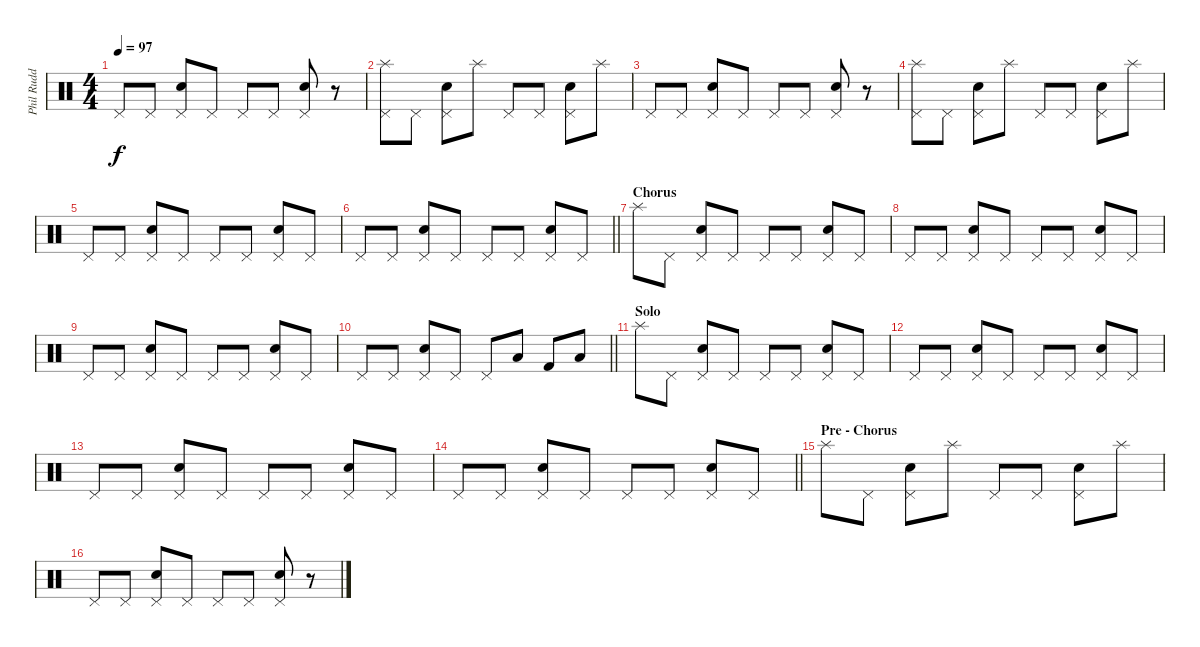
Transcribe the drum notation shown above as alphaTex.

\track ("Phil Rudd - Drums" "Phil Rudd ") {instrument percussion}
\staff {score}
\articulation defaults
\ts (4 4)
\tempo 97
\clef neutral
\ks c "Pedal Hi-Hat (hit)".8{dy f} "Pedal Hi-Hat (hit)".8
("Pedal Hi-Hat (hit)" "Snare (hit) 2").8 "Pedal Hi-Hat (hit)".8 "Pedal Hi-Hat (hit)".8 "Pedal Hi-Hat (hit)".8 ("Pedal Hi-Hat (hit)" "Snare (hit) 2").8 r.8 |
("Pedal Hi-Hat (hit)" "Splash (hit)").8 "Pedal Hi-Hat (hit)".8 ("Pedal Hi-Hat (hit)" "Snare (hit) 2").8 "Splash (hit)".8 "Pedal Hi-Hat (hit)".8 "Pedal Hi-Hat (hit)".8 ("Pedal Hi-Hat (hit)" "Snare (hit) 2").8 "Splash (hit)".8 |
"Pedal Hi-Hat (hit)".8 "Pedal Hi-Hat (hit)".8 ("Pedal Hi-Hat (hit)" "Snare (hit) 2").8 "Pedal Hi-Hat (hit)".8 "Pedal Hi-Hat (hit)".8 "Pedal Hi-Hat (hit)".8 ("Pedal Hi-Hat (hit)" "Snare (hit) 2").8 r.8 |
("Pedal Hi-Hat (hit)" "Splash (hit)").8 "Pedal Hi-Hat (hit)".8 ("Pedal Hi-Hat (hit)" "Snare (hit) 2").8 "Splash (hit)".8 "Pedal Hi-Hat (hit)".8 "Pedal Hi-Hat (hit)".8 ("Pedal Hi-Hat (hit)" "Snare (hit) 2").8 "Splash (hit)".8 |
"Pedal Hi-Hat (hit)".8 "Pedal Hi-Hat (hit)".8 ("Pedal Hi-Hat (hit)" "Snare (hit) 2").8 "Pedal Hi-Hat (hit)".8 "Pedal Hi-Hat (hit)".8 "Pedal Hi-Hat (hit)".8 ("Pedal Hi-Hat (hit)" "Snare (hit) 2").8 "Pedal Hi-Hat (hit)".8 |
\barLineRight lightlight "Pedal Hi-Hat (hit)".8 "Pedal Hi-Hat (hit)".8
("Pedal Hi-Hat (hit)" "Snare (hit) 2").8 "Pedal Hi-Hat (hit)".8 "Pedal Hi-Hat (hit)".8 "Pedal Hi-Hat (hit)".8 ("Pedal Hi-Hat (hit)" "Snare (hit) 2").8 "Pedal Hi-Hat (hit)".8 |
\section ("" "Chorus")
"Splash (hit)".8 "Pedal Hi-Hat (hit)".8 ("Pedal Hi-Hat (hit)" "Snare (hit) 2").8 "Pedal Hi-Hat (hit)".8 "Pedal Hi-Hat (hit)".8 "Pedal Hi-Hat (hit)".8 ("Pedal Hi-Hat (hit)" "Snare (hit) 2").8 "Pedal Hi-Hat (hit)".8 |
"Pedal Hi-Hat (hit)".8 "Pedal Hi-Hat (hit)".8 ("Pedal Hi-Hat (hit)" "Snare (hit) 2").8 "Pedal Hi-Hat (hit)".8 "Pedal Hi-Hat (hit)".8 "Pedal Hi-Hat (hit)".8 ("Pedal Hi-Hat (hit)" "Snare (hit) 2").8 "Pedal Hi-Hat (hit)".8 |
"Pedal Hi-Hat (hit)".8 "Pedal Hi-Hat (hit)".8 ("Pedal Hi-Hat (hit)" "Snare (hit) 2").8 "Pedal Hi-Hat (hit)".8 "Pedal Hi-Hat (hit)".8 "Pedal Hi-Hat (hit)".8 ("Pedal Hi-Hat (hit)" "Snare (hit) 2").8 "Pedal Hi-Hat (hit)".8 |
\barLineRight lightlight "Pedal Hi-Hat (hit)".8 "Pedal Hi-Hat (hit)".8
("Pedal Hi-Hat (hit)" "Snare (hit) 2").8 "Pedal Hi-Hat (hit)".8 "Pedal Hi-Hat (hit)".8 "Low Floor Tom (hit)".8 "Kick (hit) 2".8 "Low Floor Tom (hit)".8 |
\section ("" "Solo")
"Splash (hit)".8 "Pedal Hi-Hat (hit)".8 ("Pedal Hi-Hat (hit)" "Snare (hit) 2").8 "Pedal Hi-Hat (hit)".8 "Pedal Hi-Hat (hit)".8 "Pedal Hi-Hat (hit)".8 ("Pedal Hi-Hat (hit)" "Snare (hit) 2").8 "Pedal Hi-Hat (hit)".8 |
"Pedal Hi-Hat (hit)".8 "Pedal Hi-Hat (hit)".8 ("Pedal Hi-Hat (hit)" "Snare (hit) 2").8 "Pedal Hi-Hat (hit)".8 "Pedal Hi-Hat (hit)".8 "Pedal Hi-Hat (hit)".8 ("Pedal Hi-Hat (hit)" "Snare (hit) 2").8 "Pedal Hi-Hat (hit)".8 |
"Pedal Hi-Hat (hit)".8 "Pedal Hi-Hat (hit)".8 ("Pedal Hi-Hat (hit)" "Snare (hit) 2").8 "Pedal Hi-Hat (hit)".8 "Pedal Hi-Hat (hit)".8 "Pedal Hi-Hat (hit)".8 ("Pedal Hi-Hat (hit)" "Snare (hit) 2").8 "Pedal Hi-Hat (hit)".8 |
\barLineRight lightlight "Pedal Hi-Hat (hit)".8 "Pedal Hi-Hat (hit)".8
("Pedal Hi-Hat (hit)" "Snare (hit) 2").8 "Pedal Hi-Hat (hit)".8 "Pedal Hi-Hat (hit)".8 "Pedal Hi-Hat (hit)".8 ("Pedal Hi-Hat (hit)" "Snare (hit) 2").8 "Pedal Hi-Hat (hit)".8 |
\section ("" "Pre - Chorus")
"Splash (hit)".8 "Pedal Hi-Hat (hit)".8 ("Pedal Hi-Hat (hit)" "Snare (hit) 2").8 "Splash (hit)".8 "Pedal Hi-Hat (hit)".8 "Pedal Hi-Hat (hit)".8 ("Pedal Hi-Hat (hit)" "Snare (hit) 2").8 "Splash (hit)".8 |
"Pedal Hi-Hat (hit)".8 "Pedal Hi-Hat (hit)".8 ("Pedal Hi-Hat (hit)" "Snare (hit) 2").8 "Pedal Hi-Hat (hit)".8 "Pedal Hi-Hat (hit)".8 "Pedal Hi-Hat (hit)".8 ("Pedal Hi-Hat (hit)" "Snare (hit) 2").8 r.8
